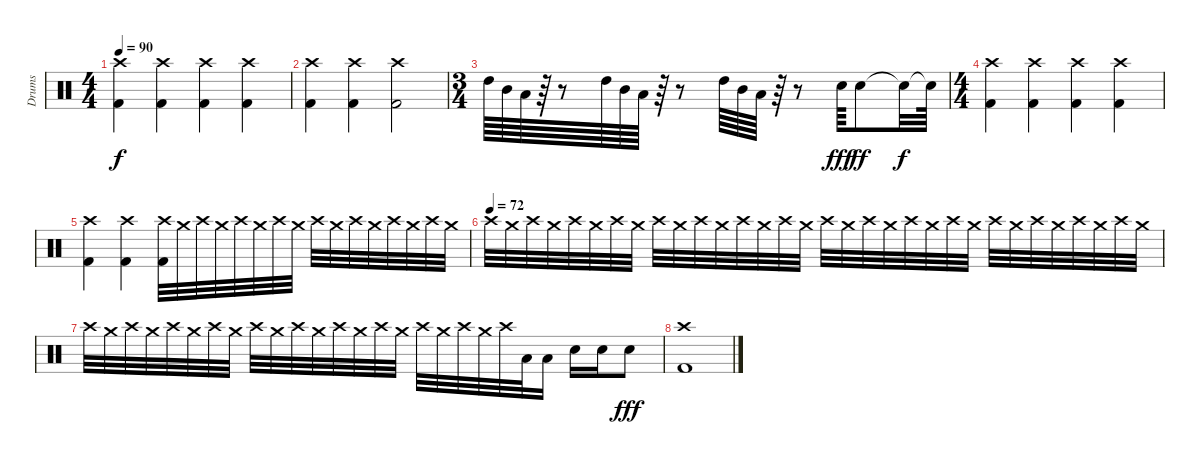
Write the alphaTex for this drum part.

\track ("Drums" "Drums") {instrument percussion}
\staff {score}
\articulation defaults
\ts (4 4)
\tempo 90
\clef neutral
\ks c
("Crash high (hit)" "Kick (hit) 2").4{dy f} ("Crash high (hit)" "Kick (hit) 2").4 ("Crash high (hit)" "Kick (hit) 2").4 ("Crash high (hit)" "Kick (hit) 2").4 |
("Crash high (hit)" "Kick (hit) 2").4 ("Crash high (hit)" "Kick (hit) 2").4 ("Crash high (hit)" "Kick (hit) 2").2 |
\ts (3 4)
"High Tom (hit)".64 "Mid Tom (hit)".64 "Low Tom (hit)".64 r.64 r.8 "High Tom (hit)".64 "Mid Tom (hit)".64 "Low Tom (hit)".64 r.64 r.8 "High Tom (hit)".64 "Mid Tom (hit)".64 "Low Tom (hit)".64 r.64 r.8 "Snare (hit) 2".64{dy fff} "Snare (hit) 2".8{dy ff} "Snare (hit)"{t}.32{dy f} "Snare (hit)"{t}.64 |
\ts (4 4)
("Crash high (hit)" "Kick (hit) 2").4 ("Crash high (hit)" "Kick (hit) 2").4 ("Crash high (hit)" "Kick (hit) 2").4 ("Crash high (hit)" "Kick (hit) 2").4 |
("Crash high (hit)" "Kick (hit) 2").4 ("Crash high (hit)" "Kick (hit) 2").4 ("Crash high (hit)" "Kick (hit) 2").32 "Crash medium (hit)".32{volume 8} "Crash high (hit)".32 "Crash medium (hit)".32 "Crash high (hit)".32 "Crash medium (hit)".32 "Crash high (hit)".32 "Crash medium (hit)".32 "Crash high (hit)".32 "Crash medium (hit)".32 "Crash high (hit)".32 "Crash medium (hit)".32 "Crash high (hit)".32 "Crash medium (hit)".32 "Crash high (hit)".32 "Crash medium (hit)".32 |
\tempo (72)
"Crash high (hit)".32 "Crash medium (hit)".32 "Crash high (hit)".32 "Crash medium (hit)".32 "Crash high (hit)".32 "Crash medium (hit)".32 "Crash high (hit)".32 "Crash medium (hit)".32 "Crash high (hit)".32 "Crash medium (hit)".32 "Crash high (hit)".32 "Crash medium (hit)".32 "Crash high (hit)".32 "Crash medium (hit)".32 "Crash high (hit)".32 "Crash medium (hit)".32 "Crash high (hit)".32 "Crash medium (hit)".32 "Crash high (hit)".32 "Crash medium (hit)".32 "Crash high (hit)".32 "Crash medium (hit)".32 "Crash high (hit)".32 "Crash medium (hit)".32 "Crash high (hit)".32 "Crash medium (hit)".32 "Crash high (hit)".32 "Crash medium (hit)".32 "Crash high (hit)".32 "Crash medium (hit)".32 "Crash high (hit)".32 "Crash medium (hit)".32 |
"Crash high (hit)".32 "Crash medium (hit)".32 "Crash high (hit)".32 "Crash medium (hit)".32 "Crash high (hit)".32 "Crash medium (hit)".32 "Crash high (hit)".32 "Crash medium (hit)".32 "Crash high (hit)".32 "Crash medium (hit)".32 "Crash high (hit)".32 "Crash medium (hit)".32 "Crash high (hit)".32 "Crash medium (hit)".32 "Crash high (hit)".32 "Crash medium (hit)".32 "Crash high (hit)".32 "Crash medium (hit)".32 "Crash high (hit)".32 "Crash medium (hit)".32 "Crash high (hit)".32 "Low Tom (hit)".32 "Low Tom (hit)".16 "Snare (hit) 2".16 "Snare (hit) 2".16 "Snare (hit) 2".8{dy fff} |
("Crash high (hit)" "Kick (hit) 2").1
